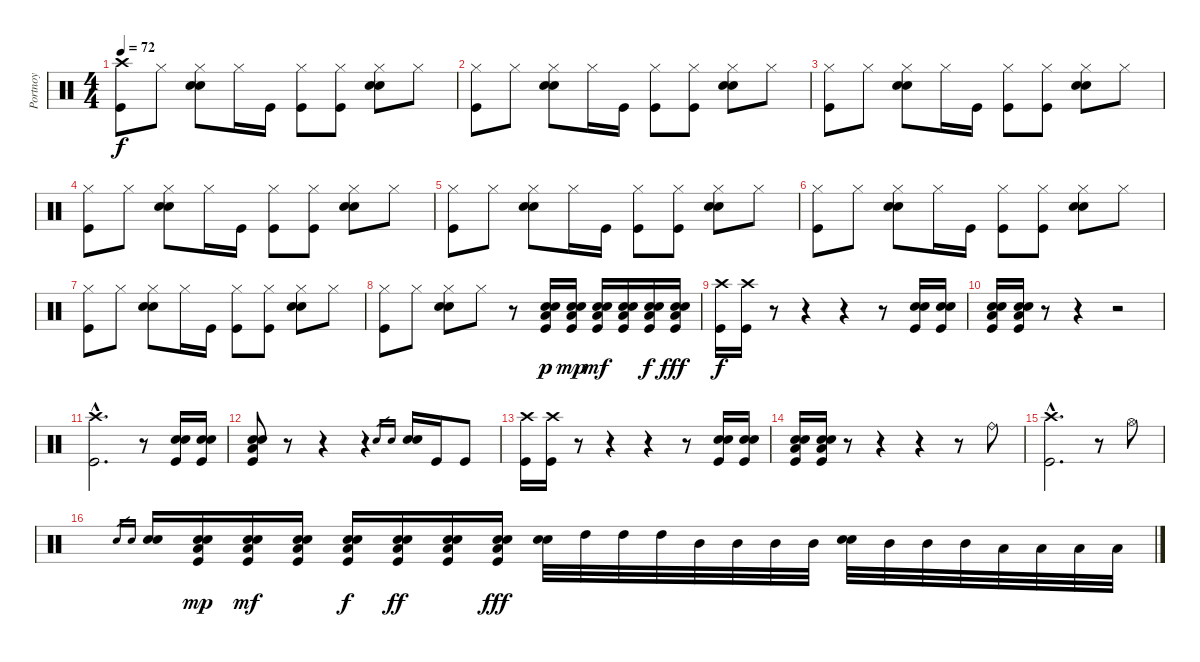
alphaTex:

\track ("Portnoy" "Portnoy") {instrument percussion}
\staff {score}
\articulation defaults
\ts (4 4)
\tempo 72
\clef neutral
\ks c
("Crash high (hit)" "Kick (hit)").8{dy f} "Hi-Hat (closed)".8 ("Hi-Hat (closed)" "Snare (hit) 2" "Electric Snare (hit)").8 "Hi-Hat (closed)".16 "Kick (hit)".16 ("Hi-Hat (closed)" "Kick (hit)").8 ("Hi-Hat (closed)" "Kick (hit)").8 ("Hi-Hat (closed)" "Snare (hit) 2" "Electric Snare (hit)").8 "Hi-Hat (closed)".8 |
("Hi-Hat (closed)" "Kick (hit)").8 "Hi-Hat (closed)".8 ("Hi-Hat (closed)" "Snare (hit) 2" "Electric Snare (hit)").8 "Hi-Hat (closed)".16 "Kick (hit)".16 ("Hi-Hat (closed)" "Kick (hit)").8 ("Hi-Hat (closed)" "Kick (hit)").8 ("Hi-Hat (closed)" "Snare (hit) 2" "Electric Snare (hit)").8 "Hi-Hat (closed)".8 |
("Hi-Hat (closed)" "Kick (hit)").8 "Hi-Hat (closed)".8 ("Hi-Hat (closed)" "Snare (hit) 2" "Electric Snare (hit)").8 "Hi-Hat (closed)".16 "Kick (hit)".16 ("Hi-Hat (closed)" "Kick (hit)").8 ("Hi-Hat (closed)" "Kick (hit)").8 ("Hi-Hat (closed)" "Snare (hit) 2" "Electric Snare (hit)").8 "Hi-Hat (closed)".8 |
("Hi-Hat (closed)" "Kick (hit)").8 "Hi-Hat (closed)".8 ("Hi-Hat (closed)" "Snare (hit) 2" "Electric Snare (hit)").8 "Hi-Hat (closed)".16 "Kick (hit)".16 ("Hi-Hat (closed)" "Kick (hit)").8 ("Hi-Hat (closed)" "Kick (hit)").8 ("Hi-Hat (closed)" "Snare (hit) 2" "Electric Snare (hit)").8 "Hi-Hat (closed)".8 |
("Hi-Hat (closed)" "Kick (hit)").8 "Hi-Hat (closed)".8 ("Hi-Hat (closed)" "Snare (hit) 2" "Electric Snare (hit)").8 "Hi-Hat (closed)".16 "Kick (hit)".16 ("Hi-Hat (closed)" "Kick (hit)").8 ("Hi-Hat (closed)" "Kick (hit)").8 ("Hi-Hat (closed)" "Snare (hit) 2" "Electric Snare (hit)").8 "Hi-Hat (closed)".8 |
("Hi-Hat (closed)" "Kick (hit)").8 "Hi-Hat (closed)".8 ("Hi-Hat (closed)" "Snare (hit) 2" "Electric Snare (hit)").8 "Hi-Hat (closed)".16 "Kick (hit)".16 ("Hi-Hat (closed)" "Kick (hit)").8 ("Hi-Hat (closed)" "Kick (hit)").8 ("Hi-Hat (closed)" "Snare (hit) 2" "Electric Snare (hit)").8 "Hi-Hat (closed)".8 |
("Hi-Hat (closed)" "Kick (hit)").8 "Hi-Hat (closed)".8 ("Hi-Hat (closed)" "Snare (hit) 2" "Electric Snare (hit)").8 "Hi-Hat (closed)".16 "Kick (hit)".16 ("Hi-Hat (closed)" "Kick (hit)").8 ("Hi-Hat (closed)" "Kick (hit)").8 ("Hi-Hat (closed)" "Snare (hit) 2" "Electric Snare (hit)").8 "Hi-Hat (closed)".8 |
("Hi-Hat (closed)" "Kick (hit)").8 "Hi-Hat (closed)".8 ("Hi-Hat (closed)" "Snare (hit) 2" "Electric Snare (hit)").8 "Hi-Hat (closed)".8 r.8 ("Snare (hit) 2" "Electric Snare (hit)" "Low Floor Tom (hit)" "Kick (hit)").16{dy p} ("Snare (hit) 2" "Electric Snare (hit)" "Low Floor Tom (hit)" "Kick (hit)").16{dy mp} ("Snare (hit) 2" "Electric Snare (hit)" "Low Floor Tom (hit)" "Kick (hit)").16{dy mf} ("Snare (hit) 2" "Electric Snare (hit)" "Low Floor Tom (hit)" "Kick (hit)").16 ("Snare (hit) 2" "Electric Snare (hit)" "Low Floor Tom (hit)" "Kick (hit)").16{dy f} ("Snare (hit) 2" "Electric Snare (hit)" "Low Floor Tom (hit)" "Kick (hit)").16{dy fff} |
("Crash high (hit)" "Kick (hit)").16{dy f} ("Crash high (hit)" "Kick (hit)").16 r.8 r.4 r.4 r.8 ("Snare (hit) 2" "Electric Snare (hit)" "Kick (hit)").16 ("Snare (hit) 2" "Electric Snare (hit)" "Kick (hit)").16 |
("Snare (hit) 2" "Electric Snare (hit)" "Low Floor Tom (hit)" "Kick (hit)").16 ("Snare (hit) 2" "Electric Snare (hit)" "Low Floor Tom (hit)" "Kick (hit)").16 r.8 r.4 r.2 |
("Crash high (hit)"{hac} "Kick (hit)"{hac}).2{d} r.8 ("Snare (hit) 2" "Electric Snare (hit)" "Kick (hit)").16 ("Snare (hit) 2" "Electric Snare (hit)" "Kick (hit)").16 |
("Snare (hit) 2" "Electric Snare (hit)" "Low Floor Tom (hit)" "Kick (hit)").8 r.8 r.4 r.4 "Snare (hit) 2".16{gr} "Electric Snare (hit)".16{gr} ("Snare (hit) 2" "Electric Snare (hit)").16 "Kick (hit)".16 "Kick (hit)".8 |
("Crash high (hit)" "Kick (hit)").16 ("Crash high (hit)" "Kick (hit)").16 r.8 r.4 r.4 r.8 ("Snare (hit) 2" "Electric Snare (hit)" "Kick (hit)").16 ("Snare (hit) 2" "Electric Snare (hit)" "Kick (hit)").16 |
("Snare (hit) 2" "Electric Snare (hit)" "Low Floor Tom (hit)" "Kick (hit)").16 ("Snare (hit) 2" "Electric Snare (hit)" "Low Floor Tom (hit)" "Kick (hit)").16 r.8 r.4 r.4 r.8 "Ride (bell)".8 |
("Crash high (hit)"{hac} "Kick (hit)"{hac}).2{d} r.8 "Hi-Hat (open)".8 |
"Snare (hit) 2".16{gr} "Electric Snare (hit)".16{gr} ("Snare (hit) 2" "Electric Snare (hit)").16 ("Snare (hit) 2" "Electric Snare (hit)" "Low Floor Tom (hit)" "Kick (hit)").16{dy mp} ("Snare (hit) 2" "Electric Snare (hit)" "Low Floor Tom (hit)" "Kick (hit)").16{dy mf} ("Snare (hit) 2" "Electric Snare (hit)" "Low Floor Tom (hit)" "Kick (hit)").16 ("Snare (hit) 2" "Electric Snare (hit)" "Low Floor Tom (hit)" "Kick (hit)").16{dy f} ("Snare (hit) 2" "Electric Snare (hit)" "Low Floor Tom (hit)" "Kick (hit)").16{dy ff} ("Snare (hit) 2" "Electric Snare (hit)" "Low Floor Tom (hit)" "Kick (hit)").16 ("Snare (hit) 2" "Electric Snare (hit)" "Low Floor Tom (hit)" "Kick (hit)").16{dy fff} ("Snare (hit) 2" "Electric Snare (hit)").32 "High Tom (hit)".32 "High Tom (hit)".32 "High Tom (hit)".32 "Mid Tom (hit)".32 "Mid Tom (hit)".32 "Mid Tom (hit)".32 "Mid Tom (hit)".32 ("Snare (hit) 2" "Electric Snare (hit)").32 "Mid Tom (hit)".32 "Mid Tom (hit)".32 "Mid Tom (hit)".32 "Low Tom (hit)".32 "Low Tom (hit)".32 "Low Tom (hit)".32 "Low Tom (hit)".32
